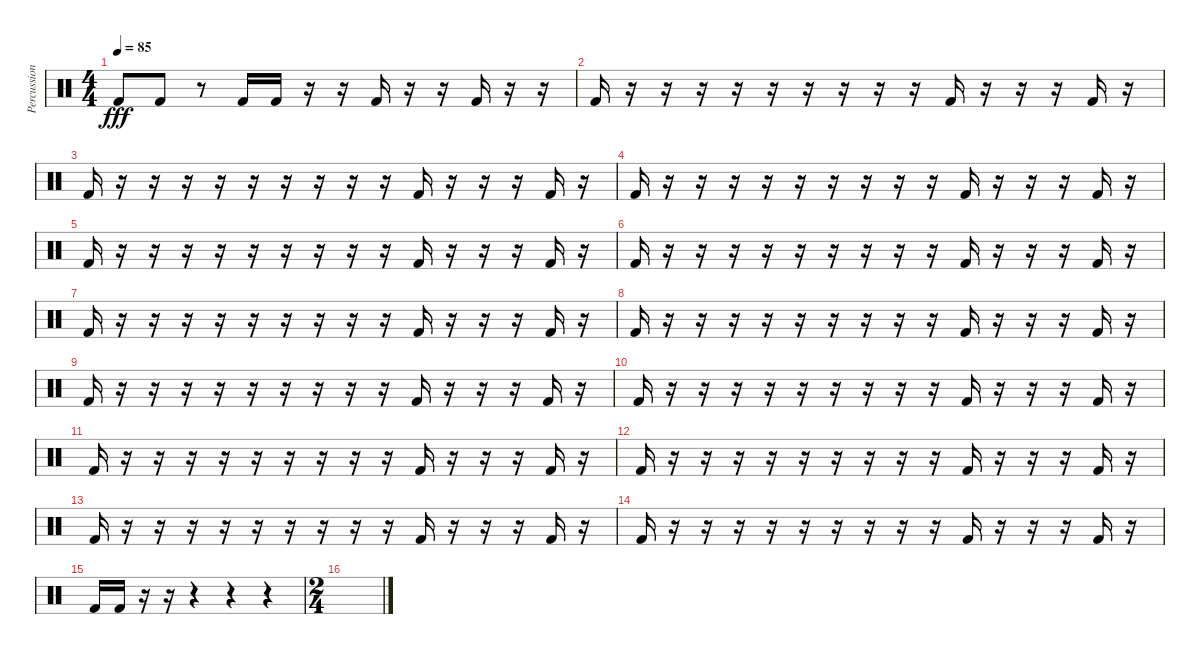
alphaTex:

\track ("Percussion" "Percussion") {instrument percussion}
\staff {score}
\articulation defaults
\ts (4 4)
\tempo 85
\clef neutral
\ks c "Kick (hit) 2".8{dy fff} "Kick (hit) 2".8
r.8 "Kick (hit) 2".16 "Kick (hit) 2".16 r.16 r.16 "Kick (hit) 2".16 r.16 r.16 "Kick (hit) 2".16 r.16 r.16 |
"Kick (hit) 2".16 r.16 r.16 r.16 r.16 r.16 r.16 r.16 r.16 r.16 "Kick (hit) 2".16 r.16 r.16 r.16 "Kick (hit) 2".16 r.16 |
"Kick (hit) 2".16 r.16 r.16 r.16 r.16 r.16 r.16 r.16 r.16 r.16 "Kick (hit) 2".16 r.16 r.16 r.16 "Kick (hit) 2".16 r.16 |
"Kick (hit) 2".16 r.16 r.16 r.16 r.16 r.16 r.16 r.16 r.16 r.16 "Kick (hit) 2".16 r.16 r.16 r.16 "Kick (hit) 2".16 r.16 |
"Kick (hit) 2".16 r.16 r.16 r.16 r.16 r.16 r.16 r.16 r.16 r.16 "Kick (hit) 2".16 r.16 r.16 r.16 "Kick (hit) 2".16 r.16 |
"Kick (hit) 2".16 r.16 r.16 r.16 r.16 r.16 r.16 r.16 r.16 r.16 "Kick (hit) 2".16 r.16 r.16 r.16 "Kick (hit) 2".16 r.16 |
"Kick (hit) 2".16 r.16 r.16 r.16 r.16 r.16 r.16 r.16 r.16 r.16 "Kick (hit) 2".16 r.16 r.16 r.16 "Kick (hit) 2".16 r.16 |
"Kick (hit) 2".16 r.16 r.16 r.16 r.16 r.16 r.16 r.16 r.16 r.16 "Kick (hit) 2".16 r.16 r.16 r.16 "Kick (hit) 2".16 r.16 |
"Kick (hit) 2".16 r.16 r.16 r.16 r.16 r.16 r.16 r.16 r.16 r.16 "Kick (hit) 2".16 r.16 r.16 r.16 "Kick (hit) 2".16 r.16 |
"Kick (hit) 2".16 r.16 r.16 r.16 r.16 r.16 r.16 r.16 r.16 r.16 "Kick (hit) 2".16 r.16 r.16 r.16 "Kick (hit) 2".16 r.16 |
"Kick (hit) 2".16 r.16 r.16 r.16 r.16 r.16 r.16 r.16 r.16 r.16 "Kick (hit) 2".16 r.16 r.16 r.16 "Kick (hit) 2".16 r.16 |
"Kick (hit) 2".16 r.16 r.16 r.16 r.16 r.16 r.16 r.16 r.16 r.16 "Kick (hit) 2".16 r.16 r.16 r.16 "Kick (hit) 2".16 r.16 |
"Kick (hit) 2".16 r.16 r.16 r.16 r.16 r.16 r.16 r.16 r.16 r.16 "Kick (hit) 2".16 r.16 r.16 r.16 "Kick (hit) 2".16 r.16 |
"Kick (hit) 2".16 r.16 r.16 r.16 r.16 r.16 r.16 r.16 r.16 r.16 "Kick (hit) 2".16 r.16 r.16 r.16 "Kick (hit) 2".16 r.16 |
"Kick (hit) 2".16 "Kick (hit) 2".16 r.16 r.16 r.4 r.4 r.4 |
\ts (2 4)
